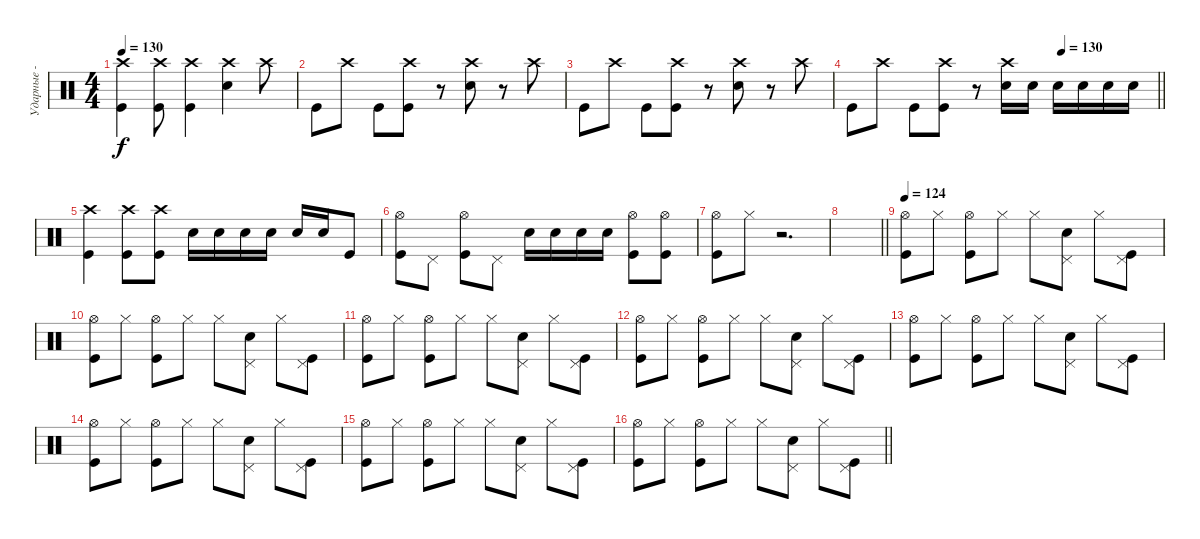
\track ("Ударные - Джек Уайт" "Ударные - ") {instrument percussion}
\staff {score}
\articulation defaults
\ts (4 4)
\tempo 130
\clef neutral
\ks c
("Crash high (hit)" "Kick (hit)").4{dy f} ("Crash high (hit)" "Kick (hit)").8 ("Crash high (hit)" "Kick (hit)").4 ("Crash high (hit)" "Electric Snare (hit)").4 "Crash high (hit)".8 |
"Kick (hit)".8 "Crash high (hit)".8 "Kick (hit)".8 ("Crash high (hit)" "Kick (hit)").8 r.8 ("Crash high (hit)" "Electric Snare (hit)").8 r.8 "Crash high (hit)".8 |
"Kick (hit)".8 "Crash high (hit)".8 "Kick (hit)".8 ("Crash high (hit)" "Kick (hit)").8 r.8 ("Crash high (hit)" "Electric Snare (hit)").8 r.8 "Crash high (hit)".8 |
\tempo (130 0.6875)
\barLineRight lightlight "Kick (hit)".8 "Crash high (hit)".8 "Kick (hit)".8
("Crash high (hit)" "Kick (hit)").8 r.8 ("Crash high (hit)" "Snare (hit) 2").16 "Snare (hit) 2".16 "Electric Snare (hit)".16 "Electric Snare (hit)".16 "Snare (hit) 2".16 "Snare (hit) 2".16 |
("Crash high (hit)" "Kick (hit)").4 ("Crash high (hit)" "Kick (hit)").8 ("Crash high (hit)" "Kick (hit)").8 "Snare (hit) 2".16 "Snare (hit) 2".16 "Electric Snare (hit)".16 "Electric Snare (hit)".16 "Snare (hit) 2".16 "Snare (hit) 2".16 "Kick (hit)".8 |
("Hi-Hat (open)" "Kick (hit)").8 "Pedal Hi-Hat (hit)".8 ("Hi-Hat (open)" "Kick (hit)").8 "Pedal Hi-Hat (hit)".8 "Snare (hit) 2".16 "Snare (hit) 2".16 "Electric Snare (hit)".16 "Electric Snare (hit)".16 ("Hi-Hat (open)" "Kick (hit)").8 ("Hi-Hat (open)" "Kick (hit)").8 |
("Hi-Hat (open)" "Kick (hit)").8 "Hi-Hat (closed)".8 r.2{d} |
\barLineRight lightlight
|
\tempo 124
("Hi-Hat (open)" "Kick (hit)").8 "Hi-Hat (closed)".8 ("Hi-Hat (open)" "Kick (hit)").8 "Hi-Hat (closed)".8 "Hi-Hat (closed)".8 ("Pedal Hi-Hat (hit)" "Electric Snare (hit)").8 "Hi-Hat (closed)".8 ("Pedal Hi-Hat (hit)" "Kick (hit)").8 |
("Hi-Hat (open)" "Kick (hit)").8 "Hi-Hat (closed)".8 ("Hi-Hat (open)" "Kick (hit)").8 "Hi-Hat (closed)".8 "Hi-Hat (closed)".8 ("Pedal Hi-Hat (hit)" "Electric Snare (hit)").8 "Hi-Hat (closed)".8 ("Pedal Hi-Hat (hit)" "Kick (hit)").8 |
("Hi-Hat (open)" "Kick (hit)").8 "Hi-Hat (closed)".8 ("Hi-Hat (open)" "Kick (hit)").8 "Hi-Hat (closed)".8 "Hi-Hat (closed)".8 ("Pedal Hi-Hat (hit)" "Electric Snare (hit)").8 "Hi-Hat (closed)".8 ("Pedal Hi-Hat (hit)" "Kick (hit)").8 |
("Hi-Hat (open)" "Kick (hit)").8 "Hi-Hat (closed)".8 ("Hi-Hat (open)" "Kick (hit)").8 "Hi-Hat (closed)".8 "Hi-Hat (closed)".8 ("Pedal Hi-Hat (hit)" "Electric Snare (hit)").8 "Hi-Hat (closed)".8 ("Pedal Hi-Hat (hit)" "Kick (hit)").8 |
("Hi-Hat (open)" "Kick (hit)").8 "Hi-Hat (closed)".8 ("Hi-Hat (open)" "Kick (hit)").8 "Hi-Hat (closed)".8 "Hi-Hat (closed)".8 ("Pedal Hi-Hat (hit)" "Electric Snare (hit)").8 "Hi-Hat (closed)".8 ("Pedal Hi-Hat (hit)" "Kick (hit)").8 |
("Hi-Hat (open)" "Kick (hit)").8 "Hi-Hat (closed)".8 ("Hi-Hat (open)" "Kick (hit)").8 "Hi-Hat (closed)".8 "Hi-Hat (closed)".8 ("Pedal Hi-Hat (hit)" "Electric Snare (hit)").8 "Hi-Hat (closed)".8 ("Pedal Hi-Hat (hit)" "Kick (hit)").8 |
("Hi-Hat (open)" "Kick (hit)").8 "Hi-Hat (closed)".8 ("Hi-Hat (open)" "Kick (hit)").8 "Hi-Hat (closed)".8 "Hi-Hat (closed)".8 ("Pedal Hi-Hat (hit)" "Electric Snare (hit)").8 "Hi-Hat (closed)".8 ("Pedal Hi-Hat (hit)" "Kick (hit)").8 |
\barLineRight lightlight
("Hi-Hat (open)" "Kick (hit)").8 "Hi-Hat (closed)".8 ("Hi-Hat (open)" "Kick (hit)").8 "Hi-Hat (closed)".8 "Hi-Hat (closed)".8 ("Pedal Hi-Hat (hit)" "Electric Snare (hit)").8 "Hi-Hat (closed)".8 ("Pedal Hi-Hat (hit)" "Kick (hit)").8
